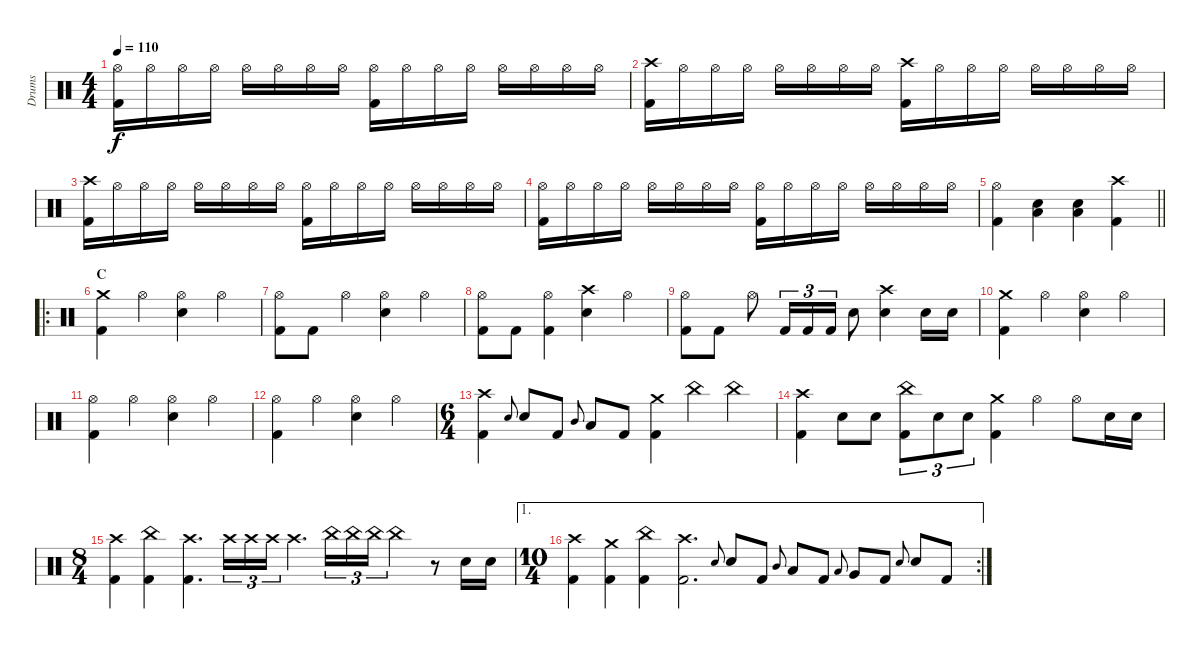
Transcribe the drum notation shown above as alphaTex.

\track ("Drums" "Drums") {instrument percussion}
\staff {score}
\articulation defaults
\ts (4 4)
\tempo 110
\clef neutral
\ks c
("Hi-Hat (open)" "Kick (hit) 2").16{dy f} "Hi-Hat (open)".16 "Hi-Hat (open)".16 "Hi-Hat (open)".16 "Hi-Hat (open)".16 "Hi-Hat (open)".16 "Hi-Hat (open)".16 "Hi-Hat (open)".16 ("Hi-Hat (open)" "Kick (hit) 2").16 "Hi-Hat (open)".16 "Hi-Hat (open)".16 "Hi-Hat (open)".16 "Hi-Hat (open)".16 "Hi-Hat (open)".16 "Hi-Hat (open)".16 "Hi-Hat (open)".16 |
("Crash high (hit)" "Kick (hit) 2").16 "Hi-Hat (open)".16 "Hi-Hat (open)".16 "Hi-Hat (open)".16 "Hi-Hat (open)".16 "Hi-Hat (open)".16 "Hi-Hat (open)".16 "Hi-Hat (open)".16 ("Crash high (hit)" "Kick (hit) 2").16 "Hi-Hat (open)".16 "Hi-Hat (open)".16 "Hi-Hat (open)".16 "Hi-Hat (open)".16 "Hi-Hat (open)".16 "Hi-Hat (open)".16 "Hi-Hat (open)".16 |
("Crash high (hit)" "Kick (hit) 2").16 "Hi-Hat (open)".16 "Hi-Hat (open)".16 "Hi-Hat (open)".16 "Hi-Hat (open)".16 "Hi-Hat (open)".16 "Hi-Hat (open)".16 "Hi-Hat (open)".16 ("Hi-Hat (open)" "Kick (hit) 2").16 "Hi-Hat (open)".16 "Hi-Hat (open)".16 "Hi-Hat (open)".16 "Hi-Hat (open)".16 "Hi-Hat (open)".16 "Hi-Hat (open)".16 "Hi-Hat (open)".16 |
("Hi-Hat (open)" "Kick (hit) 2").16 "Hi-Hat (open)".16 "Hi-Hat (open)".16 "Hi-Hat (open)".16 "Hi-Hat (open)".16 "Hi-Hat (open)".16 "Hi-Hat (open)".16 "Hi-Hat (open)".16 ("Hi-Hat (open)" "Kick (hit) 2").16 "Hi-Hat (open)".16 "Hi-Hat (open)".16 "Hi-Hat (open)".16 "Hi-Hat (open)".16 "Hi-Hat (open)".16 "Hi-Hat (open)".16 "Hi-Hat (open)".16 |
\barLineRight lightlight
("Hi-Hat (open)" "Kick (hit) 2").4 ("Low Tom (hit)" "Snare (hit) 2").4 ("Low Tom (hit)" "Snare (hit) 2").4 ("Crash high (hit)" "Kick (hit) 2").4 |
\ro
\section ("" "C")
("Crash medium (hit)" "Kick (hit) 2").4 "Hi-Hat (open)".4 ("Hi-Hat (open)" "Snare (hit) 2").4 "Hi-Hat (open)".4 |
("Hi-Hat (open)" "Kick (hit) 2").8 "Kick (hit) 2".8 "Hi-Hat (open)".4 ("Hi-Hat (open)" "Snare (hit) 2").4 "Hi-Hat (open)".4 |
("Hi-Hat (open)" "Kick (hit) 2").8 "Kick (hit) 2".8 ("Hi-Hat (open)" "Kick (hit) 2").4 ("Crash high (hit)" "Snare (hit) 2").4 "Hi-Hat (open)".4 |
("Hi-Hat (open)" "Kick (hit) 2").8 "Kick (hit) 2".8 "Hi-Hat (open)".8 "Kick (hit) 2".16{tu (3 2)} "Kick (hit) 2".16{tu (3 2)} "Kick (hit) 2".16{tu (3 2)} "Snare (hit) 2".8 ("Crash high (hit)" "Snare (hit) 2").4 "Snare (hit) 2".16 "Snare (hit) 2".16 |
("Crash medium (hit)" "Kick (hit) 2").4 "Hi-Hat (open)".4 ("Hi-Hat (open)" "Snare (hit) 2").4 "Hi-Hat (open)".4 |
("Hi-Hat (open)" "Kick (hit) 2").4 "Hi-Hat (open)".4 ("Hi-Hat (open)" "Snare (hit) 2").4 "Hi-Hat (open)".4 |
("Hi-Hat (open)" "Kick (hit) 2").4 "Hi-Hat (open)".4 ("Hi-Hat (open)" "Snare (hit) 2").4 "Hi-Hat (open)".4 |
\ts (6 4)
("Crash high (hit)" "Kick (hit) 2").4 "Snare (hit) 2".8{gr onbeat} "Snare (hit) 2".8 "Kick (hit) 2".8 "Mid Tom (hit)".8{gr onbeat} "Low Tom (hit)".8 "Kick (hit) 2".8 ("Crash medium (hit)" "Kick (hit) 2").4 "China (hit)".4 "China (hit)".4 |
("Crash high (hit)" "Kick (hit) 2").4 "Snare (hit) 2".8 "Snare (hit) 2".8 ("China (hit)" "Kick (hit) 2").8{tu (3 2)} "Snare (hit) 2".8{tu (3 2)} "Snare (hit) 2".8{tu (3 2)} ("Crash medium (hit)" "Kick (hit) 2").4 "Hi-Hat (open)".4 "Hi-Hat (open)".8 "Snare (hit) 2".16 "Snare (hit) 2".16 |
\ts (8 4)
("Crash high (hit)" "Kick (hit) 2").4 ("China (hit)" "Kick (hit) 2").4 ("Crash high (hit)" "Kick (hit) 2").4{d} "Crash high (hit)".16{tu (3 2)} "Crash high (hit)".16{tu (3 2)} "Crash high (hit)".16{tu (3 2)} "Crash high (hit)".4{d} "China (hit)".16{tu (3 2)} "China (hit)".16{tu (3 2)} "China (hit)".16{tu (3 2)} "China (hit)".4 r.8 "Snare (hit) 2".16 "Snare (hit) 2".16 |
\ae 1
\rc 2
\ts (10 4)
("Crash high (hit)" "Kick (hit) 2").4 ("Crash medium (hit)" "Kick (hit) 2").4 ("China (hit)" "Kick (hit) 2").4 ("Crash high (hit)" "Kick (hit) 2").2{d} "Snare (hit) 2".8{gr onbeat} "Snare (hit) 2".8 "Kick (hit) 2".8 "Mid Tom (hit)".8{gr onbeat} "Low Tom (hit)".8 "Kick (hit) 2".8 "Low Tom (hit)".8{gr onbeat} "Very Low Tom (hit)".8 "Kick (hit) 2".8 "Snare (hit) 2".8{gr onbeat} "Snare (hit) 2".8 "Kick (hit) 2".8
